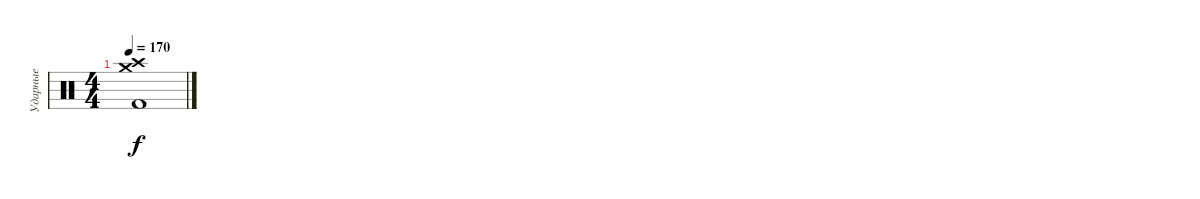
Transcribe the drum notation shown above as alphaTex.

\track ("Ударные" "Ударные") {instrument percussion}
\staff {score}
\articulation defaults
\ts (4 4)
\tempo 170
\clef neutral
\ks c
("Crash medium (hit)" "Crash high (hit)" "Kick (hit) 2").1{dy f}
